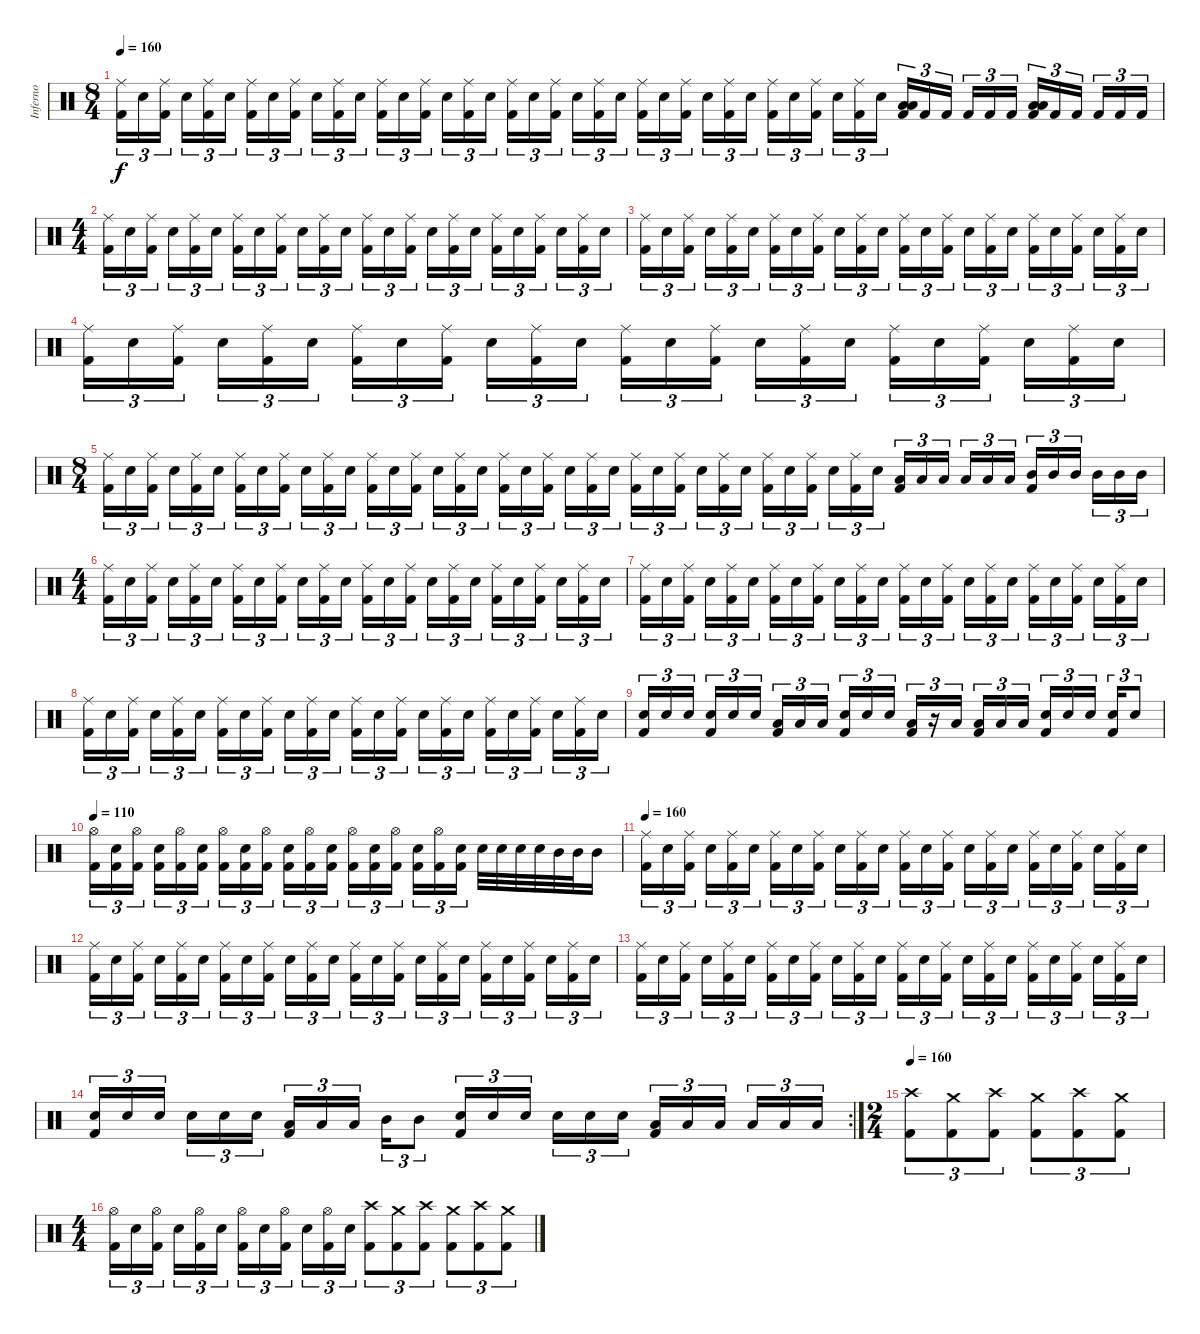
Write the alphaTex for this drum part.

\track ("Inferno" "Inferno") {instrument percussion}
\staff {score}
\articulation defaults
\ts (8 4)
\tempo 160
\clef neutral
\ks c
("Ride (middle)" "Kick (hit) 2").16{tu (3 2) dy f} "Electric Snare (hit)".16{tu (3 2)} ("Ride (middle)" "Kick (hit) 2").16{tu (3 2)} "Electric Snare (hit)".16{tu (3 2)} ("Ride (middle)" "Kick (hit) 2").16{tu (3 2)} "Electric Snare (hit)".16{tu (3 2)} ("Ride (middle)" "Kick (hit) 2").16{tu (3 2)} "Electric Snare (hit)".16{tu (3 2)} ("Ride (middle)" "Kick (hit) 2").16{tu (3 2)} "Electric Snare (hit)".16{tu (3 2)} ("Ride (middle)" "Kick (hit) 2").16{tu (3 2)} "Electric Snare (hit)".16{tu (3 2)} ("Ride (middle)" "Kick (hit) 2").16{tu (3 2)} "Electric Snare (hit)".16{tu (3 2)} ("Ride (middle)" "Kick (hit) 2").16{tu (3 2)} "Electric Snare (hit)".16{tu (3 2)} ("Ride (middle)" "Kick (hit) 2").16{tu (3 2)} "Electric Snare (hit)".16{tu (3 2)} ("Ride (middle)" "Kick (hit) 2").16{tu (3 2)} "Electric Snare (hit)".16{tu (3 2)} ("Ride (middle)" "Kick (hit) 2").16{tu (3 2)} "Electric Snare (hit)".16{tu (3 2)} ("Ride (middle)" "Kick (hit) 2").16{tu (3 2)} "Electric Snare (hit)".16{tu (3 2)} ("Ride (middle)" "Kick (hit) 2").16{tu (3 2)} "Electric Snare (hit)".16{tu (3 2)} ("Ride (middle)" "Kick (hit) 2").16{tu (3 2)} "Electric Snare (hit)".16{tu (3 2)} ("Ride (middle)" "Kick (hit) 2").16{tu (3 2)} "Electric Snare (hit)".16{tu (3 2)} ("Ride (middle)" "Kick (hit) 2").16{tu (3 2)} "Electric Snare (hit)".16{tu (3 2)} ("Ride (middle)" "Kick (hit) 2").16{tu (3 2)} "Electric Snare (hit)".16{tu (3 2)} ("Ride (middle)" "Kick (hit) 2").16{tu (3 2)} "Electric Snare (hit)".16{tu (3 2)} ("Low Tom (hit)" "Low Tom (hit)" "Kick (hit) 2").16{tu (3 2)} "Kick (hit) 2".16{tu (3 2)} "Kick (hit) 2".16{tu (3 2)} "Kick (hit) 2".16{tu (3 2)} "Kick (hit) 2".16{tu (3 2)} "Kick (hit) 2".16{tu (3 2)} ("Low Tom (hit)" "Low Tom (hit)" "Kick (hit) 2").16{tu (3 2)} "Kick (hit) 2".16{tu (3 2)} "Kick (hit) 2".16{tu (3 2)} "Kick (hit) 2".16{tu (3 2)} "Kick (hit) 2".16{tu (3 2)} "Kick (hit) 2".16{tu (3 2)} |
\ts (4 4)
("Ride (middle)" "Kick (hit) 2").16{tu (3 2)} "Electric Snare (hit)".16{tu (3 2)} ("Ride (middle)" "Kick (hit) 2").16{tu (3 2)} "Electric Snare (hit)".16{tu (3 2)} ("Ride (middle)" "Kick (hit) 2").16{tu (3 2)} "Electric Snare (hit)".16{tu (3 2)} ("Ride (middle)" "Kick (hit) 2").16{tu (3 2)} "Electric Snare (hit)".16{tu (3 2)} ("Ride (middle)" "Kick (hit) 2").16{tu (3 2)} "Electric Snare (hit)".16{tu (3 2)} ("Ride (middle)" "Kick (hit) 2").16{tu (3 2)} "Electric Snare (hit)".16{tu (3 2)} ("Ride (middle)" "Kick (hit) 2").16{tu (3 2)} "Electric Snare (hit)".16{tu (3 2)} ("Ride (middle)" "Kick (hit) 2").16{tu (3 2)} "Electric Snare (hit)".16{tu (3 2)} ("Ride (middle)" "Kick (hit) 2").16{tu (3 2)} "Electric Snare (hit)".16{tu (3 2)} ("Ride (middle)" "Kick (hit) 2").16{tu (3 2)} "Electric Snare (hit)".16{tu (3 2)} ("Ride (middle)" "Kick (hit) 2").16{tu (3 2)} "Electric Snare (hit)".16{tu (3 2)} ("Ride (middle)" "Kick (hit) 2").16{tu (3 2)} "Electric Snare (hit)".16{tu (3 2)} |
("Ride (middle)" "Kick (hit) 2").16{tu (3 2)} "Electric Snare (hit)".16{tu (3 2)} ("Ride (middle)" "Kick (hit) 2").16{tu (3 2)} "Electric Snare (hit)".16{tu (3 2)} ("Ride (middle)" "Kick (hit) 2").16{tu (3 2)} "Electric Snare (hit)".16{tu (3 2)} ("Ride (middle)" "Kick (hit) 2").16{tu (3 2)} "Electric Snare (hit)".16{tu (3 2)} ("Ride (middle)" "Kick (hit) 2").16{tu (3 2)} "Electric Snare (hit)".16{tu (3 2)} ("Ride (middle)" "Kick (hit) 2").16{tu (3 2)} "Electric Snare (hit)".16{tu (3 2)} ("Ride (middle)" "Kick (hit) 2").16{tu (3 2)} "Electric Snare (hit)".16{tu (3 2)} ("Ride (middle)" "Kick (hit) 2").16{tu (3 2)} "Electric Snare (hit)".16{tu (3 2)} ("Ride (middle)" "Kick (hit) 2").16{tu (3 2)} "Electric Snare (hit)".16{tu (3 2)} ("Ride (middle)" "Kick (hit) 2").16{tu (3 2)} "Electric Snare (hit)".16{tu (3 2)} ("Ride (middle)" "Kick (hit) 2").16{tu (3 2)} "Electric Snare (hit)".16{tu (3 2)} ("Ride (middle)" "Kick (hit) 2").16{tu (3 2)} "Electric Snare (hit)".16{tu (3 2)} |
("Ride (middle)" "Kick (hit) 2").16{tu (3 2)} "Electric Snare (hit)".16{tu (3 2)} ("Ride (middle)" "Kick (hit) 2").16{tu (3 2)} "Electric Snare (hit)".16{tu (3 2)} ("Ride (middle)" "Kick (hit) 2").16{tu (3 2)} "Electric Snare (hit)".16{tu (3 2)} ("Ride (middle)" "Kick (hit) 2").16{tu (3 2)} "Electric Snare (hit)".16{tu (3 2)} ("Ride (middle)" "Kick (hit) 2").16{tu (3 2)} "Electric Snare (hit)".16{tu (3 2)} ("Ride (middle)" "Kick (hit) 2").16{tu (3 2)} "Electric Snare (hit)".16{tu (3 2)} ("Ride (middle)" "Kick (hit) 2").16{tu (3 2)} "Electric Snare (hit)".16{tu (3 2)} ("Ride (middle)" "Kick (hit) 2").16{tu (3 2)} "Electric Snare (hit)".16{tu (3 2)} ("Ride (middle)" "Kick (hit) 2").16{tu (3 2)} "Electric Snare (hit)".16{tu (3 2)} ("Ride (middle)" "Kick (hit) 2").16{tu (3 2)} "Electric Snare (hit)".16{tu (3 2)} ("Ride (middle)" "Kick (hit) 2").16{tu (3 2)} "Electric Snare (hit)".16{tu (3 2)} ("Ride (middle)" "Kick (hit) 2").16{tu (3 2)} "Electric Snare (hit)".16{tu (3 2)} |
\ts (8 4)
("Ride (middle)" "Kick (hit) 2").16{tu (3 2)} "Electric Snare (hit)".16{tu (3 2)} ("Ride (middle)" "Kick (hit) 2").16{tu (3 2)} "Electric Snare (hit)".16{tu (3 2)} ("Ride (middle)" "Kick (hit) 2").16{tu (3 2)} "Electric Snare (hit)".16{tu (3 2)} ("Ride (middle)" "Kick (hit) 2").16{tu (3 2)} "Electric Snare (hit)".16{tu (3 2)} ("Ride (middle)" "Kick (hit) 2").16{tu (3 2)} "Electric Snare (hit)".16{tu (3 2)} ("Ride (middle)" "Kick (hit) 2").16{tu (3 2)} "Electric Snare (hit)".16{tu (3 2)} ("Ride (middle)" "Kick (hit) 2").16{tu (3 2)} "Electric Snare (hit)".16{tu (3 2)} ("Ride (middle)" "Kick (hit) 2").16{tu (3 2)} "Electric Snare (hit)".16{tu (3 2)} ("Ride (middle)" "Kick (hit) 2").16{tu (3 2)} "Electric Snare (hit)".16{tu (3 2)} ("Ride (middle)" "Kick (hit) 2").16{tu (3 2)} "Electric Snare (hit)".16{tu (3 2)} ("Ride (middle)" "Kick (hit) 2").16{tu (3 2)} "Electric Snare (hit)".16{tu (3 2)} ("Ride (middle)" "Kick (hit) 2").16{tu (3 2)} "Electric Snare (hit)".16{tu (3 2)} ("Ride (middle)" "Kick (hit) 2").16{tu (3 2)} "Electric Snare (hit)".16{tu (3 2)} ("Ride (middle)" "Kick (hit) 2").16{tu (3 2)} "Electric Snare (hit)".16{tu (3 2)} ("Ride (middle)" "Kick (hit) 2").16{tu (3 2)} "Electric Snare (hit)".16{tu (3 2)} ("Ride (middle)" "Kick (hit) 2").16{tu (3 2)} "Electric Snare (hit)".16{tu (3 2)} ("Ride (middle)" "Kick (hit) 2").16{tu (3 2)} "Electric Snare (hit)".16{tu (3 2)} ("Ride (middle)" "Kick (hit) 2").16{tu (3 2)} "Electric Snare (hit)".16{tu (3 2)} ("Low Tom (hit)" "Kick (hit) 2").16{tu (3 2)} "Low Tom (hit)".16{tu (3 2)} "Low Tom (hit)".16{tu (3 2)} "Low Tom (hit)".16{tu (3 2)} "Low Tom (hit)".16{tu (3 2)} "Low Tom (hit)".16{tu (3 2)} ("Mid Tom (hit)" "Kick (hit) 2").16{tu (3 2)} "Mid Tom (hit)".16{tu (3 2)} "Mid Tom (hit)".16{tu (3 2)} "Mid Tom (hit)".16{tu (3 2)} "Mid Tom (hit)".16{tu (3 2)} "Mid Tom (hit)".16{tu (3 2)} |
\ts (4 4)
("Ride (middle)" "Kick (hit) 2").16{tu (3 2)} "Electric Snare (hit)".16{tu (3 2)} ("Ride (middle)" "Kick (hit) 2").16{tu (3 2)} "Electric Snare (hit)".16{tu (3 2)} ("Ride (middle)" "Kick (hit) 2").16{tu (3 2)} "Electric Snare (hit)".16{tu (3 2)} ("Ride (middle)" "Kick (hit) 2").16{tu (3 2)} "Electric Snare (hit)".16{tu (3 2)} ("Ride (middle)" "Kick (hit) 2").16{tu (3 2)} "Electric Snare (hit)".16{tu (3 2)} ("Ride (middle)" "Kick (hit) 2").16{tu (3 2)} "Electric Snare (hit)".16{tu (3 2)} ("Ride (middle)" "Kick (hit) 2").16{tu (3 2)} "Electric Snare (hit)".16{tu (3 2)} ("Ride (middle)" "Kick (hit) 2").16{tu (3 2)} "Electric Snare (hit)".16{tu (3 2)} ("Ride (middle)" "Kick (hit) 2").16{tu (3 2)} "Electric Snare (hit)".16{tu (3 2)} ("Ride (middle)" "Kick (hit) 2").16{tu (3 2)} "Electric Snare (hit)".16{tu (3 2)} ("Ride (middle)" "Kick (hit) 2").16{tu (3 2)} "Electric Snare (hit)".16{tu (3 2)} ("Ride (middle)" "Kick (hit) 2").16{tu (3 2)} "Electric Snare (hit)".16{tu (3 2)} |
("Ride (middle)" "Kick (hit) 2").16{tu (3 2)} "Electric Snare (hit)".16{tu (3 2)} ("Ride (middle)" "Kick (hit) 2").16{tu (3 2)} "Electric Snare (hit)".16{tu (3 2)} ("Ride (middle)" "Kick (hit) 2").16{tu (3 2)} "Electric Snare (hit)".16{tu (3 2)} ("Ride (middle)" "Kick (hit) 2").16{tu (3 2)} "Electric Snare (hit)".16{tu (3 2)} ("Ride (middle)" "Kick (hit) 2").16{tu (3 2)} "Electric Snare (hit)".16{tu (3 2)} ("Ride (middle)" "Kick (hit) 2").16{tu (3 2)} "Electric Snare (hit)".16{tu (3 2)} ("Ride (middle)" "Kick (hit) 2").16{tu (3 2)} "Electric Snare (hit)".16{tu (3 2)} ("Ride (middle)" "Kick (hit) 2").16{tu (3 2)} "Electric Snare (hit)".16{tu (3 2)} ("Ride (middle)" "Kick (hit) 2").16{tu (3 2)} "Electric Snare (hit)".16{tu (3 2)} ("Ride (middle)" "Kick (hit) 2").16{tu (3 2)} "Electric Snare (hit)".16{tu (3 2)} ("Ride (middle)" "Kick (hit) 2").16{tu (3 2)} "Electric Snare (hit)".16{tu (3 2)} ("Ride (middle)" "Kick (hit) 2").16{tu (3 2)} "Electric Snare (hit)".16{tu (3 2)} |
("Ride (middle)" "Kick (hit) 2").16{tu (3 2)} "Electric Snare (hit)".16{tu (3 2)} ("Ride (middle)" "Kick (hit) 2").16{tu (3 2)} "Electric Snare (hit)".16{tu (3 2)} ("Ride (middle)" "Kick (hit) 2").16{tu (3 2)} "Electric Snare (hit)".16{tu (3 2)} ("Ride (middle)" "Kick (hit) 2").16{tu (3 2)} "Electric Snare (hit)".16{tu (3 2)} ("Ride (middle)" "Kick (hit) 2").16{tu (3 2)} "Electric Snare (hit)".16{tu (3 2)} ("Ride (middle)" "Kick (hit) 2").16{tu (3 2)} "Electric Snare (hit)".16{tu (3 2)} ("Ride (middle)" "Kick (hit) 2").16{tu (3 2)} "Electric Snare (hit)".16{tu (3 2)} ("Ride (middle)" "Kick (hit) 2").16{tu (3 2)} "Electric Snare (hit)".16{tu (3 2)} ("Ride (middle)" "Kick (hit) 2").16{tu (3 2)} "Electric Snare (hit)".16{tu (3 2)} ("Ride (middle)" "Kick (hit) 2").16{tu (3 2)} "Electric Snare (hit)".16{tu (3 2)} ("Ride (middle)" "Kick (hit) 2").16{tu (3 2)} "Electric Snare (hit)".16{tu (3 2)} ("Ride (middle)" "Kick (hit) 2").16{tu (3 2)} "Electric Snare (hit)".16{tu (3 2)} |
("Electric Snare (hit)" "Kick (hit) 2").16{tu (3 2)} "Electric Snare (hit)".16{tu (3 2)} "Electric Snare (hit)".16{tu (3 2)} ("Electric Snare (hit)" "Kick (hit) 2").16{tu (3 2)} "Electric Snare (hit)".16{tu (3 2)} "Electric Snare (hit)".16{tu (3 2)} ("Low Tom (hit)" "Kick (hit) 2").16{tu (3 2)} "Low Tom (hit)".16{tu (3 2)} "Low Tom (hit)".16{tu (3 2)} ("Electric Snare (hit)" "Kick (hit) 2").16{tu (3 2)} "Electric Snare (hit)".16{tu (3 2)} "Electric Snare (hit)".16{tu (3 2)} ("Low Tom (hit)" "Kick (hit) 2").16{tu (3 2)} r.16{tu (3 2)} "Low Tom (hit)".16{tu (3 2)} ("Low Tom (hit)" "Kick (hit) 2").16{tu (3 2)} "Low Tom (hit)".16{tu (3 2)} "Low Tom (hit)".16{tu (3 2)} ("Electric Snare (hit)" "Kick (hit) 2").16{tu (3 2)} "Electric Snare (hit)".16{tu (3 2)} "Electric Snare (hit)".16{tu (3 2)} ("Electric Snare (hit)" "Kick (hit) 2").16{tu (3 2)} "Electric Snare (hit)".8{tu (3 2)} |
\tempo 110
("Hi-Hat (open)" "Kick (hit) 2").16{tu (3 2)} ("Electric Snare (hit)" "Kick (hit) 2").16{tu (3 2)} ("Hi-Hat (open)" "Kick (hit) 2").16{tu (3 2)} ("Electric Snare (hit)" "Kick (hit) 2").16{tu (3 2)} ("Hi-Hat (open)" "Kick (hit) 2").16{tu (3 2)} ("Electric Snare (hit)" "Kick (hit) 2").16{tu (3 2)} ("Hi-Hat (open)" "Kick (hit) 2").16{tu (3 2)} ("Electric Snare (hit)" "Kick (hit) 2").16{tu (3 2)} ("Hi-Hat (open)" "Kick (hit) 2").16{tu (3 2)} ("Electric Snare (hit)" "Kick (hit) 2").16{tu (3 2)} ("Hi-Hat (open)" "Kick (hit) 2").16{tu (3 2)} ("Electric Snare (hit)" "Kick (hit) 2").16{tu (3 2)} ("Hi-Hat (open)" "Kick (hit) 2").16{tu (3 2)} ("Electric Snare (hit)" "Kick (hit) 2").16{tu (3 2)} ("Hi-Hat (open)" "Kick (hit) 2").16{tu (3 2)} ("Electric Snare (hit)" "Kick (hit) 2").16{tu (3 2)} ("Hi-Hat (open)" "Kick (hit) 2").16{tu (3 2)} ("Electric Snare (hit)" "Kick (hit) 2").16{tu (3 2)} "Electric Snare (hit)".32 "Electric Snare (hit)".32 "Electric Snare (hit)".32 "Electric Snare (hit)".32 "Mid Tom (hit)".32 "Mid Tom (hit)".32 "Mid Tom (hit)".16 |
\tempo 160
("Ride (middle)" "Kick (hit) 2").16{tu (3 2)} "Electric Snare (hit)".16{tu (3 2)} ("Ride (middle)" "Kick (hit) 2").16{tu (3 2)} "Electric Snare (hit)".16{tu (3 2)} ("Ride (middle)" "Kick (hit) 2").16{tu (3 2)} "Electric Snare (hit)".16{tu (3 2)} ("Ride (middle)" "Kick (hit) 2").16{tu (3 2)} "Electric Snare (hit)".16{tu (3 2)} ("Ride (middle)" "Kick (hit) 2").16{tu (3 2)} "Electric Snare (hit)".16{tu (3 2)} ("Ride (middle)" "Kick (hit) 2").16{tu (3 2)} "Electric Snare (hit)".16{tu (3 2)} ("Ride (middle)" "Kick (hit) 2").16{tu (3 2)} "Electric Snare (hit)".16{tu (3 2)} ("Ride (middle)" "Kick (hit) 2").16{tu (3 2)} "Electric Snare (hit)".16{tu (3 2)} ("Ride (middle)" "Kick (hit) 2").16{tu (3 2)} "Electric Snare (hit)".16{tu (3 2)} ("Ride (middle)" "Kick (hit) 2").16{tu (3 2)} "Electric Snare (hit)".16{tu (3 2)} ("Ride (middle)" "Kick (hit) 2").16{tu (3 2)} "Electric Snare (hit)".16{tu (3 2)} ("Ride (middle)" "Kick (hit) 2").16{tu (3 2)} "Electric Snare (hit)".16{tu (3 2)} |
("Ride (middle)" "Kick (hit) 2").16{tu (3 2)} "Electric Snare (hit)".16{tu (3 2)} ("Ride (middle)" "Kick (hit) 2").16{tu (3 2)} "Electric Snare (hit)".16{tu (3 2)} ("Ride (middle)" "Kick (hit) 2").16{tu (3 2)} "Electric Snare (hit)".16{tu (3 2)} ("Ride (middle)" "Kick (hit) 2").16{tu (3 2)} "Electric Snare (hit)".16{tu (3 2)} ("Ride (middle)" "Kick (hit) 2").16{tu (3 2)} "Electric Snare (hit)".16{tu (3 2)} ("Ride (middle)" "Kick (hit) 2").16{tu (3 2)} "Electric Snare (hit)".16{tu (3 2)} ("Ride (middle)" "Kick (hit) 2").16{tu (3 2)} "Electric Snare (hit)".16{tu (3 2)} ("Ride (middle)" "Kick (hit) 2").16{tu (3 2)} "Electric Snare (hit)".16{tu (3 2)} ("Ride (middle)" "Kick (hit) 2").16{tu (3 2)} "Electric Snare (hit)".16{tu (3 2)} ("Ride (middle)" "Kick (hit) 2").16{tu (3 2)} "Electric Snare (hit)".16{tu (3 2)} ("Ride (middle)" "Kick (hit) 2").16{tu (3 2)} "Electric Snare (hit)".16{tu (3 2)} ("Ride (middle)" "Kick (hit) 2").16{tu (3 2)} "Electric Snare (hit)".16{tu (3 2)} |
("Ride (middle)" "Kick (hit) 2").16{tu (3 2)} "Electric Snare (hit)".16{tu (3 2)} ("Ride (middle)" "Kick (hit) 2").16{tu (3 2)} "Electric Snare (hit)".16{tu (3 2)} ("Ride (middle)" "Kick (hit) 2").16{tu (3 2)} "Electric Snare (hit)".16{tu (3 2)} ("Ride (middle)" "Kick (hit) 2").16{tu (3 2)} "Electric Snare (hit)".16{tu (3 2)} ("Ride (middle)" "Kick (hit) 2").16{tu (3 2)} "Electric Snare (hit)".16{tu (3 2)} ("Ride (middle)" "Kick (hit) 2").16{tu (3 2)} "Electric Snare (hit)".16{tu (3 2)} ("Ride (middle)" "Kick (hit) 2").16{tu (3 2)} "Electric Snare (hit)".16{tu (3 2)} ("Ride (middle)" "Kick (hit) 2").16{tu (3 2)} "Electric Snare (hit)".16{tu (3 2)} ("Ride (middle)" "Kick (hit) 2").16{tu (3 2)} "Electric Snare (hit)".16{tu (3 2)} ("Ride (middle)" "Kick (hit) 2").16{tu (3 2)} "Electric Snare (hit)".16{tu (3 2)} ("Ride (middle)" "Kick (hit) 2").16{tu (3 2)} "Electric Snare (hit)".16{tu (3 2)} ("Ride (middle)" "Kick (hit) 2").16{tu (3 2)} "Electric Snare (hit)".16{tu (3 2)} |
\rc 2
("Electric Snare (hit)" "Kick (hit) 2").16{tu (3 2)} "Electric Snare (hit)".16{tu (3 2)} "Electric Snare (hit)".16{tu (3 2)} "Electric Snare (hit)".16{tu (3 2)} "Electric Snare (hit)".16{tu (3 2)} "Electric Snare (hit)".16{tu (3 2)} ("Low Tom (hit)" "Kick (hit) 2").16{tu (3 2)} "Low Tom (hit)".16{tu (3 2)} "Low Tom (hit)".16{tu (3 2)} "Mid Tom (hit)".16{tu (3 2)} "Mid Tom (hit)".8{tu (3 2)} ("Electric Snare (hit)" "Kick (hit) 2").16{tu (3 2)} "Electric Snare (hit)".16{tu (3 2)} "Electric Snare (hit)".16{tu (3 2)} "Electric Snare (hit)".16{tu (3 2)} "Electric Snare (hit)".16{tu (3 2)} "Electric Snare (hit)".16{tu (3 2)} ("Low Tom (hit)" "Kick (hit) 2").16{tu (3 2)} "Low Tom (hit)".16{tu (3 2)} "Low Tom (hit)".16{tu (3 2)} "Low Tom (hit)".16{tu (3 2)} "Low Tom (hit)".16{tu (3 2)} "Low Tom (hit)".16{tu (3 2)} |
\ts (2 4)
\tempo 160
("Crash high (hit)" "Kick (hit) 2").8{tu (3 2)} ("Crash medium (hit)" "Kick (hit) 2").8{tu (3 2)} ("Crash high (hit)" "Kick (hit) 2").8{tu (3 2)} ("Crash medium (hit)" "Kick (hit) 2").8{tu (3 2)} ("Crash high (hit)" "Kick (hit) 2").8{tu (3 2)} ("Crash medium (hit)" "Kick (hit) 2").8{tu (3 2)} |
\ts (4 4)
("Hi-Hat (open)" "Kick (hit) 2").16{tu (3 2)} "Electric Snare (hit)".16{tu (3 2)} ("Hi-Hat (open)" "Kick (hit) 2").16{tu (3 2)} "Electric Snare (hit)".16{tu (3 2)} ("Hi-Hat (open)" "Kick (hit) 2").16{tu (3 2)} "Electric Snare (hit)".16{tu (3 2)} ("Hi-Hat (open)" "Kick (hit) 2").16{tu (3 2)} "Electric Snare (hit)".16{tu (3 2)} ("Hi-Hat (open)" "Kick (hit) 2").16{tu (3 2)} "Electric Snare (hit)".16{tu (3 2)} ("Hi-Hat (open)" "Kick (hit) 2").16{tu (3 2)} "Electric Snare (hit)".16{tu (3 2)} ("Crash high (hit)" "Kick (hit) 2").8{tu (3 2)} ("Crash medium (hit)" "Kick (hit) 2").8{tu (3 2)} ("Crash high (hit)" "Kick (hit) 2").8{tu (3 2)} ("Crash medium (hit)" "Kick (hit) 2").8{tu (3 2)} ("Crash high (hit)" "Kick (hit) 2").8{tu (3 2)} ("Crash medium (hit)" "Kick (hit) 2").8{tu (3 2)}
